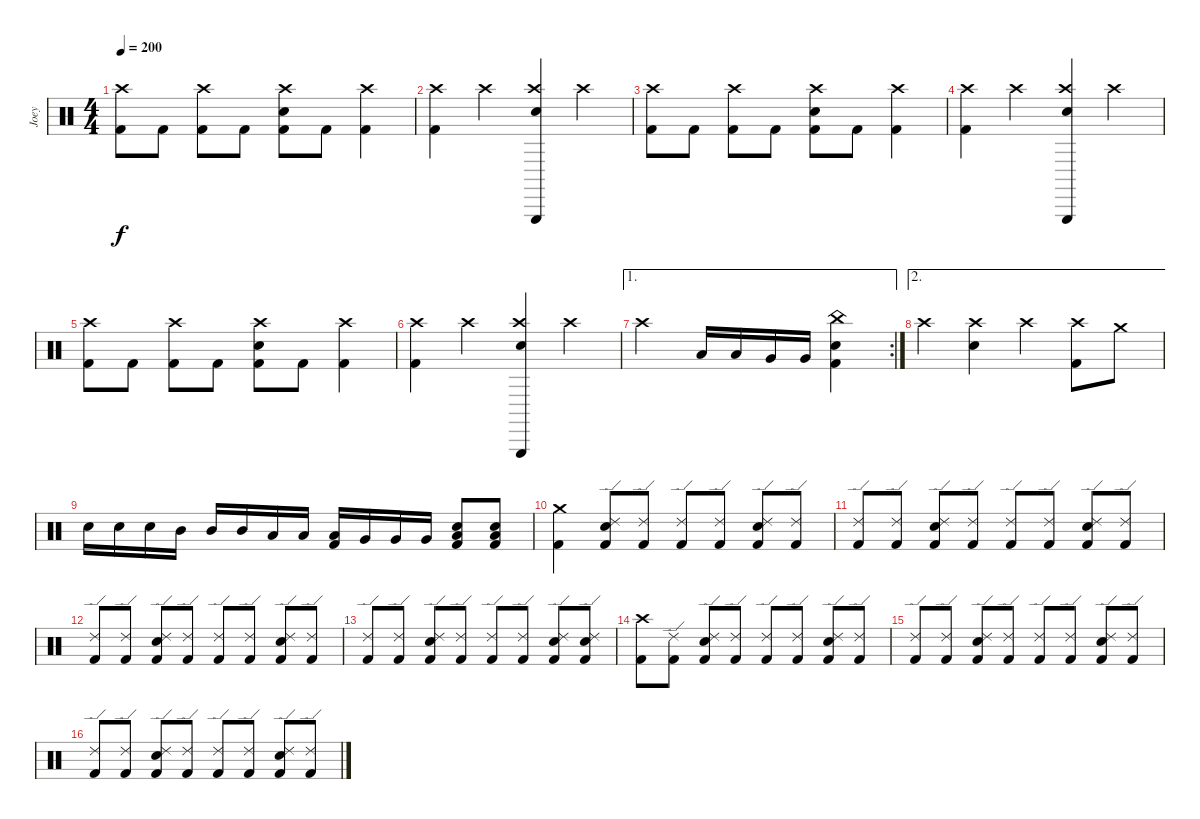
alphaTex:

\track ("Joey" "Joey") {instrument percussion}
\staff {score}
\articulation defaults
\ts (4 4)
\tempo 200
\clef neutral
\ks c
("Crash high (hit)" "Kick (hit) 2").8{dy f} "Kick (hit) 2".8 ("Crash high (hit)" "Kick (hit) 2").8 "Kick (hit) 2".8 ("Crash high (hit)" "Electric Snare (hit)" "Kick (hit) 2").8 "Kick (hit) 2".8 ("Crash high (hit)" "Kick (hit) 2").4 |
("Crash high (hit)" "Kick (hit) 2").4 "Crash high (hit)".4 ("Crash high (hit)" "Triangle (hit)" "Electric Snare (hit)").4 "Crash high (hit)".4 |
("Crash high (hit)" "Kick (hit) 2").8 "Kick (hit) 2".8 ("Crash high (hit)" "Kick (hit) 2").8 "Kick (hit) 2".8 ("Crash high (hit)" "Electric Snare (hit)" "Kick (hit) 2").8 "Kick (hit) 2".8 ("Crash high (hit)" "Kick (hit) 2").4 |
("Crash high (hit)" "Kick (hit) 2").4 "Crash high (hit)".4 ("Crash high (hit)" "Triangle (hit)" "Electric Snare (hit)").4 "Crash high (hit)".4 |
("Crash high (hit)" "Kick (hit) 2").8 "Kick (hit) 2".8 ("Crash high (hit)" "Kick (hit) 2").8 "Kick (hit) 2".8 ("Crash high (hit)" "Electric Snare (hit)" "Kick (hit) 2").8 "Kick (hit) 2".8 ("Crash high (hit)" "Kick (hit) 2").4 |
("Crash high (hit)" "Kick (hit) 2").4 "Crash high (hit)".4 ("Crash high (hit)" "Triangle (hit)" "Electric Snare (hit)").4 "Crash high (hit)".4 |
\ae 1
\rc 2 "Crash high (hit)".2 "Low Tom (hit)".16 "Low Tom (hit)".16 "Very Low Tom (hit)".16 "Very Low Tom (hit)".16
("China (hit)" "Electric Snare (hit)" "Kick (hit) 2").4 |
\ae 2 "Crash high (hit)".4
("Crash high (hit)" "Electric Snare (hit)").4 "Crash high (hit)".4 ("Crash high (hit)" "Kick (hit) 2").8 "Crash medium (hit)".8 |
"Electric Snare (hit)".16 "Electric Snare (hit)".16 "Electric Snare (hit)".16 "Mid Tom (hit)".16 "Mid Tom (hit)".16 "Mid Tom (hit)".16 "Low Tom (hit)".16 "Low Tom (hit)".16 ("Low Tom (hit)" "Kick (hit) 2").16 "Very Low Tom (hit)".16 "Very Low Tom (hit)".16 "Very Low Tom (hit)".16 ("Low Floor Tom (hit)" "Electric Snare (hit)" "Kick (hit) 2").8 ("Low Floor Tom (hit)" "Electric Snare (hit)" "Kick (hit) 2").8 |
("Crash medium (hit)" "Kick (hit) 2").4 ("Ride (edge) 2" "Electric Snare (hit)" "Kick (hit) 2").8 ("Ride (edge) 2" "Kick (hit) 2").8 ("Ride (edge) 2" "Kick (hit) 2").8 ("Ride (edge) 2" "Kick (hit) 2").8 ("Ride (edge) 2" "Electric Snare (hit)" "Kick (hit) 2").8 ("Ride (edge) 2" "Kick (hit) 2").8 |
("Ride (edge) 2" "Kick (hit) 2").8 ("Ride (edge) 2" "Kick (hit) 2").8 ("Ride (edge) 2" "Electric Snare (hit)" "Kick (hit) 2").8 ("Ride (edge) 2" "Kick (hit) 2").8 ("Ride (edge) 2" "Kick (hit) 2").8 ("Ride (edge) 2" "Kick (hit) 2").8 ("Ride (edge) 2" "Electric Snare (hit)" "Kick (hit) 2").8 ("Ride (edge) 2" "Kick (hit) 2").8 |
("Ride (edge) 2" "Kick (hit) 2").8 ("Ride (edge) 2" "Kick (hit) 2").8 ("Ride (edge) 2" "Electric Snare (hit)" "Kick (hit) 2").8 ("Ride (edge) 2" "Kick (hit) 2").8 ("Ride (edge) 2" "Kick (hit) 2").8 ("Ride (edge) 2" "Kick (hit) 2").8 ("Ride (edge) 2" "Electric Snare (hit)" "Kick (hit) 2").8 ("Ride (edge) 2" "Kick (hit) 2").8 |
("Ride (edge) 2" "Kick (hit) 2").8 ("Ride (edge) 2" "Kick (hit) 2").8 ("Ride (edge) 2" "Electric Snare (hit)" "Kick (hit) 2").8 ("Ride (edge) 2" "Kick (hit) 2").8 ("Ride (edge) 2" "Kick (hit) 2").8 ("Ride (edge) 2" "Kick (hit) 2").8 ("Ride (edge) 2" "Electric Snare (hit)" "Kick (hit) 2").8 ("Ride (edge) 2" "Electric Snare (hit)" "Kick (hit) 2").8 |
("Crash high (hit)" "Kick (hit) 2").8 ("Ride (edge) 2" "Kick (hit) 2").8 ("Ride (edge) 2" "Electric Snare (hit)" "Kick (hit) 2").8 ("Ride (edge) 2" "Kick (hit) 2").8 ("Ride (edge) 2" "Kick (hit) 2").8 ("Ride (edge) 2" "Kick (hit) 2").8 ("Ride (edge) 2" "Electric Snare (hit)" "Kick (hit) 2").8 ("Ride (edge) 2" "Kick (hit) 2").8 |
("Ride (edge) 2" "Kick (hit) 2").8 ("Ride (edge) 2" "Kick (hit) 2").8 ("Ride (edge) 2" "Electric Snare (hit)" "Kick (hit) 2").8 ("Ride (edge) 2" "Kick (hit) 2").8 ("Ride (edge) 2" "Kick (hit) 2").8 ("Ride (edge) 2" "Kick (hit) 2").8 ("Ride (edge) 2" "Electric Snare (hit)" "Kick (hit) 2").8 ("Ride (edge) 2" "Kick (hit) 2").8 |
("Ride (edge) 2" "Kick (hit) 2").8 ("Ride (edge) 2" "Kick (hit) 2").8 ("Ride (edge) 2" "Electric Snare (hit)" "Kick (hit) 2").8 ("Ride (edge) 2" "Kick (hit) 2").8 ("Ride (edge) 2" "Kick (hit) 2").8 ("Ride (edge) 2" "Kick (hit) 2").8 ("Ride (edge) 2" "Electric Snare (hit)" "Kick (hit) 2").8 ("Ride (edge) 2" "Kick (hit) 2").8
